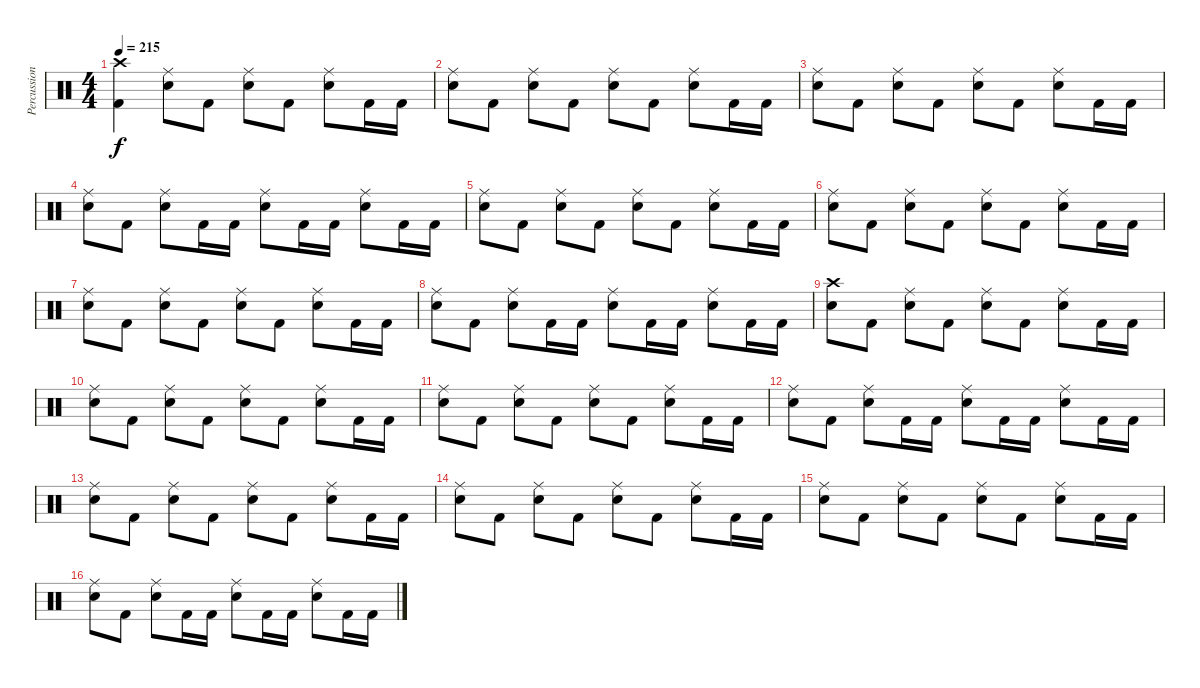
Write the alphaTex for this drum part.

\track ("Percussion" "Percussion") {instrument percussion}
\staff {score}
\articulation defaults
\ts (4 4)
\tempo 215
\clef neutral
\ks aminor
("Crash high (hit)" "Kick (hit) 2").4{dy f} ("Ride (middle)" "Snare (hit) 2").8 "Kick (hit) 2".8 ("Ride (middle)" "Snare (hit) 2").8 "Kick (hit) 2".8 ("Ride (middle)" "Snare (hit) 2").8 "Kick (hit) 2".16 "Kick (hit) 2".16 |
("Ride (middle)" "Snare (hit) 2").8 "Kick (hit) 2".8 ("Ride (middle)" "Snare (hit) 2").8 "Kick (hit) 2".8 ("Ride (middle)" "Snare (hit) 2").8 "Kick (hit) 2".8 ("Ride (middle)" "Snare (hit) 2").8 "Kick (hit) 2".16 "Kick (hit) 2".16 |
("Ride (middle)" "Snare (hit) 2").8 "Kick (hit) 2".8 ("Ride (middle)" "Snare (hit) 2").8 "Kick (hit) 2".8 ("Ride (middle)" "Snare (hit) 2").8 "Kick (hit) 2".8 ("Ride (middle)" "Snare (hit) 2").8 "Kick (hit) 2".16 "Kick (hit) 2".16 |
("Ride (middle)" "Snare (hit) 2").8 "Kick (hit) 2".8 ("Ride (middle)" "Snare (hit) 2").8 "Kick (hit) 2".16 "Kick (hit) 2".16 ("Ride (middle)" "Snare (hit) 2").8 "Kick (hit) 2".16 "Kick (hit) 2".16 ("Ride (middle)" "Snare (hit) 2").8 "Kick (hit) 2".16 "Kick (hit) 2".16 |
("Ride (middle)" "Snare (hit) 2").8 "Kick (hit) 2".8 ("Ride (middle)" "Snare (hit) 2").8 "Kick (hit) 2".8 ("Ride (middle)" "Snare (hit) 2").8 "Kick (hit) 2".8 ("Ride (middle)" "Snare (hit) 2").8 "Kick (hit) 2".16 "Kick (hit) 2".16 |
("Ride (middle)" "Snare (hit) 2").8 "Kick (hit) 2".8 ("Ride (middle)" "Snare (hit) 2").8 "Kick (hit) 2".8 ("Ride (middle)" "Snare (hit) 2").8 "Kick (hit) 2".8 ("Ride (middle)" "Snare (hit) 2").8 "Kick (hit) 2".16 "Kick (hit) 2".16 |
("Ride (middle)" "Snare (hit) 2").8 "Kick (hit) 2".8 ("Ride (middle)" "Snare (hit) 2").8 "Kick (hit) 2".8 ("Ride (middle)" "Snare (hit) 2").8 "Kick (hit) 2".8 ("Ride (middle)" "Snare (hit) 2").8 "Kick (hit) 2".16 "Kick (hit) 2".16 |
("Ride (middle)" "Snare (hit) 2").8 "Kick (hit) 2".8 ("Ride (middle)" "Snare (hit) 2").8 "Kick (hit) 2".16 "Kick (hit) 2".16 ("Ride (middle)" "Snare (hit) 2").8 "Kick (hit) 2".16 "Kick (hit) 2".16 ("Ride (middle)" "Snare (hit) 2").8 "Kick (hit) 2".16 "Kick (hit) 2".16 |
("Crash high (hit)" "Snare (hit) 2").8 "Kick (hit) 2".8 ("Ride (middle)" "Snare (hit) 2").8 "Kick (hit) 2".8 ("Ride (middle)" "Snare (hit) 2").8 "Kick (hit) 2".8 ("Ride (middle)" "Snare (hit) 2").8 "Kick (hit) 2".16 "Kick (hit) 2".16 |
("Ride (middle)" "Snare (hit) 2").8 "Kick (hit) 2".8 ("Ride (middle)" "Snare (hit) 2").8 "Kick (hit) 2".8 ("Ride (middle)" "Snare (hit) 2").8 "Kick (hit) 2".8 ("Ride (middle)" "Snare (hit) 2").8 "Kick (hit) 2".16 "Kick (hit) 2".16 |
("Ride (middle)" "Snare (hit) 2").8 "Kick (hit) 2".8 ("Ride (middle)" "Snare (hit) 2").8 "Kick (hit) 2".8 ("Ride (middle)" "Snare (hit) 2").8 "Kick (hit) 2".8 ("Ride (middle)" "Snare (hit) 2").8 "Kick (hit) 2".16 "Kick (hit) 2".16 |
("Ride (middle)" "Snare (hit) 2").8 "Kick (hit) 2".8 ("Ride (middle)" "Snare (hit) 2").8 "Kick (hit) 2".16 "Kick (hit) 2".16 ("Ride (middle)" "Snare (hit) 2").8 "Kick (hit) 2".16 "Kick (hit) 2".16 ("Ride (middle)" "Snare (hit) 2").8 "Kick (hit) 2".16 "Kick (hit) 2".16 |
("Ride (middle)" "Snare (hit) 2").8 "Kick (hit) 2".8 ("Ride (middle)" "Snare (hit) 2").8 "Kick (hit) 2".8 ("Ride (middle)" "Snare (hit) 2").8 "Kick (hit) 2".8 ("Ride (middle)" "Snare (hit) 2").8 "Kick (hit) 2".16 "Kick (hit) 2".16 |
("Ride (middle)" "Snare (hit) 2").8 "Kick (hit) 2".8 ("Ride (middle)" "Snare (hit) 2").8 "Kick (hit) 2".8 ("Ride (middle)" "Snare (hit) 2").8 "Kick (hit) 2".8 ("Ride (middle)" "Snare (hit) 2").8 "Kick (hit) 2".16 "Kick (hit) 2".16 |
("Ride (middle)" "Snare (hit) 2").8 "Kick (hit) 2".8 ("Ride (middle)" "Snare (hit) 2").8 "Kick (hit) 2".8 ("Ride (middle)" "Snare (hit) 2").8 "Kick (hit) 2".8 ("Ride (middle)" "Snare (hit) 2").8 "Kick (hit) 2".16 "Kick (hit) 2".16 |
("Ride (middle)" "Snare (hit) 2").8 "Kick (hit) 2".8 ("Ride (middle)" "Snare (hit) 2").8 "Kick (hit) 2".16 "Kick (hit) 2".16 ("Ride (middle)" "Snare (hit) 2").8 "Kick (hit) 2".16 "Kick (hit) 2".16 ("Ride (middle)" "Snare (hit) 2").8 "Kick (hit) 2".16 "Kick (hit) 2".16
